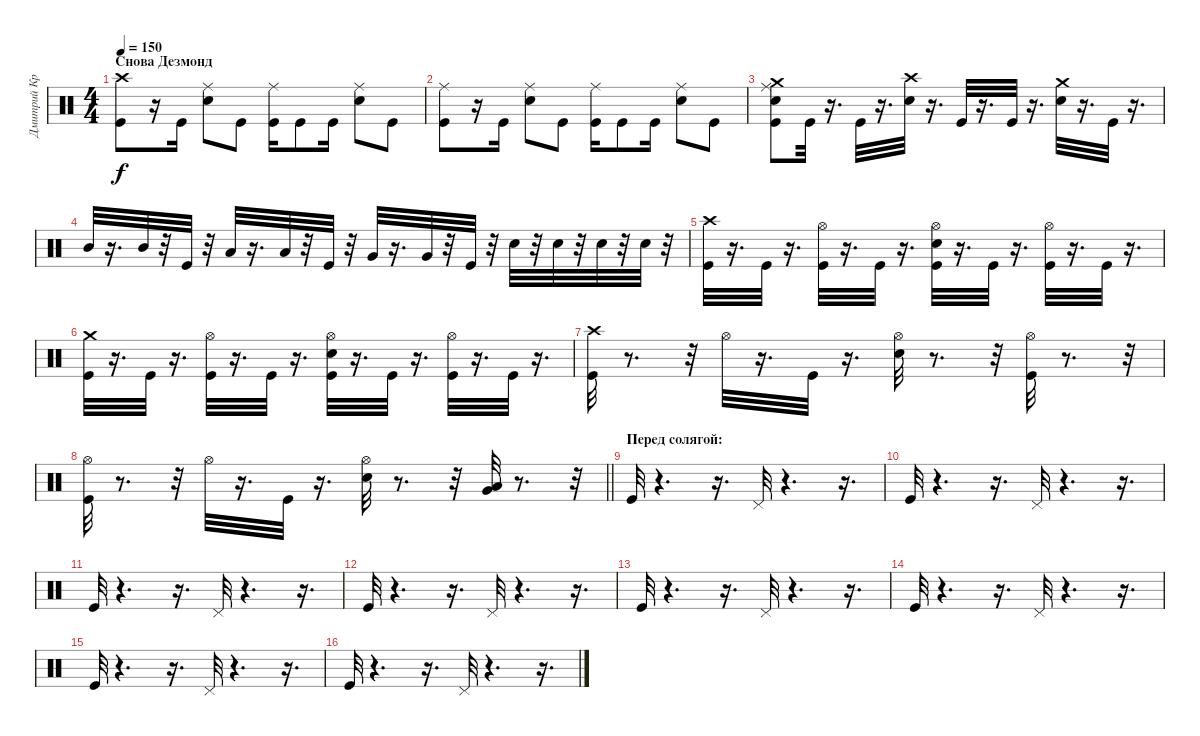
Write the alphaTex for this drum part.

\track ("Дмитрий Кривенков" "Дмитрий Кр") {instrument percussion}
\staff {score}
\articulation defaults
\ts (4 4)
\section ("" "Снова Дезмонд")
\tempo 150
\clef neutral
\ks c
("Crash high (hit)" "Kick (hit)").8{dy f} r.16 "Kick (hit)".16 ("Ride (middle)" "Electric Snare (hit)").8 "Kick (hit)".8 ("Ride (middle)" "Kick (hit)").16 "Kick (hit)".8 "Kick (hit)".16 ("Ride (middle)" "Electric Snare (hit)").8 "Kick (hit)".8 |
("Kick (hit)" "Ride (middle)").8 r.16 "Kick (hit)".16 ("Ride (middle)" "Electric Snare (hit)").8 "Kick (hit)".8 ("Ride (middle)" "Kick (hit)").16 "Kick (hit)".8 "Kick (hit)".16 ("Ride (middle)" "Electric Snare (hit)").8 "Kick (hit)".8 |
("Crash medium (hit)" "Electric Snare (hit)" "Ride (middle)" "Kick (hit)").8 "Kick (hit)".32 r.16{d} "Kick (hit)".32 r.16{d} ("Crash high (hit)" "Electric Snare (hit)").32 r.16{d} "Kick (hit)".32 r.16{d} "Kick (hit)".32 r.16{d} ("Crash medium (hit)" "Electric Snare (hit)").32 r.16{d} "Kick (hit)".32 r.16{d} |
"Mid Tom (hit)".32 r.16{d} "Mid Tom (hit)".32 r.32 "Kick (hit)".32 r.32 "Low Tom (hit)".32 r.16{d} "Low Tom (hit)".32 r.32 "Kick (hit)".32 r.32 "Very Low Tom (hit)".32 r.16{d} "Very Low Tom (hit)".32 r.32 "Kick (hit)".32 r.32 "Electric Snare (hit)".32 r.32 "Electric Snare (hit)".32 r.32 "Electric Snare (hit)".32 r.32 "Electric Snare (hit)".32 r.32 |
("Crash high (hit)" "Kick (hit)").32 r.16{d} "Kick (hit)".32 r.16{d} ("Hi-Hat (open)" "Kick (hit)").32 r.16{d} "Kick (hit)".32 r.16{d} ("Kick (hit)" "Hi-Hat (open)" "Electric Snare (hit)").32 r.16{d} "Kick (hit)".32 r.16{d} ("Hi-Hat (open)" "Kick (hit)").32 r.16{d} "Kick (hit)".32 r.16{d} |
("Crash medium (hit)" "Kick (hit)").32 r.16{d} "Kick (hit)".32 r.16{d} ("Hi-Hat (open)" "Kick (hit)").32 r.16{d} "Kick (hit)".32 r.16{d} ("Hi-Hat (open)" "Kick (hit)" "Electric Snare (hit)").32 r.16{d} "Kick (hit)".32 r.16{d} ("Kick (hit)" "Hi-Hat (open)").32 r.16{d} "Kick (hit)".32 r.16{d} |
("Crash high (hit)" "Kick (hit)").32 r.8{d} r.32 "Hi-Hat (open)".32 r.16{d} "Kick (hit)".32 r.16{d} ("Hi-Hat (open)" "Electric Snare (hit)").32 r.8{d} r.32 ("Hi-Hat (open)" "Kick (hit)").32 r.8{d} r.32 |
\barLineRight lightlight
("Hi-Hat (open)" "Kick (hit)").32 r.8{d} r.32 "Hi-Hat (open)".32 r.16{d} "Kick (hit)".32 r.16{d} ("Hi-Hat (open)" "Electric Snare (hit)").32 r.8{d} r.32 ("Very Low Tom (hit)" "Low Tom (hit)").32 r.8{d} r.32 |
\section ("" "Перед солягой:")
"Kick (hit)".32 r.4{d} r.16{d} "Pedal Hi-Hat (hit)".32 r.4{d} r.16{d} |
"Kick (hit)".32 r.4{d} r.16{d} "Pedal Hi-Hat (hit)".32 r.4{d} r.16{d} |
"Kick (hit)".32 r.4{d} r.16{d} "Pedal Hi-Hat (hit)".32 r.4{d} r.16{d} |
"Kick (hit)".32 r.4{d} r.16{d} "Pedal Hi-Hat (hit)".32 r.4{d} r.16{d} |
"Kick (hit)".32 r.4{d} r.16{d} "Pedal Hi-Hat (hit)".32 r.4{d} r.16{d} |
"Kick (hit)".32 r.4{d} r.16{d} "Pedal Hi-Hat (hit)".32 r.4{d} r.16{d} |
"Kick (hit)".32 r.4{d} r.16{d} "Pedal Hi-Hat (hit)".32 r.4{d} r.16{d} |
"Kick (hit)".32 r.4{d} r.16{d} "Pedal Hi-Hat (hit)".32 r.4{d} r.16{d}
